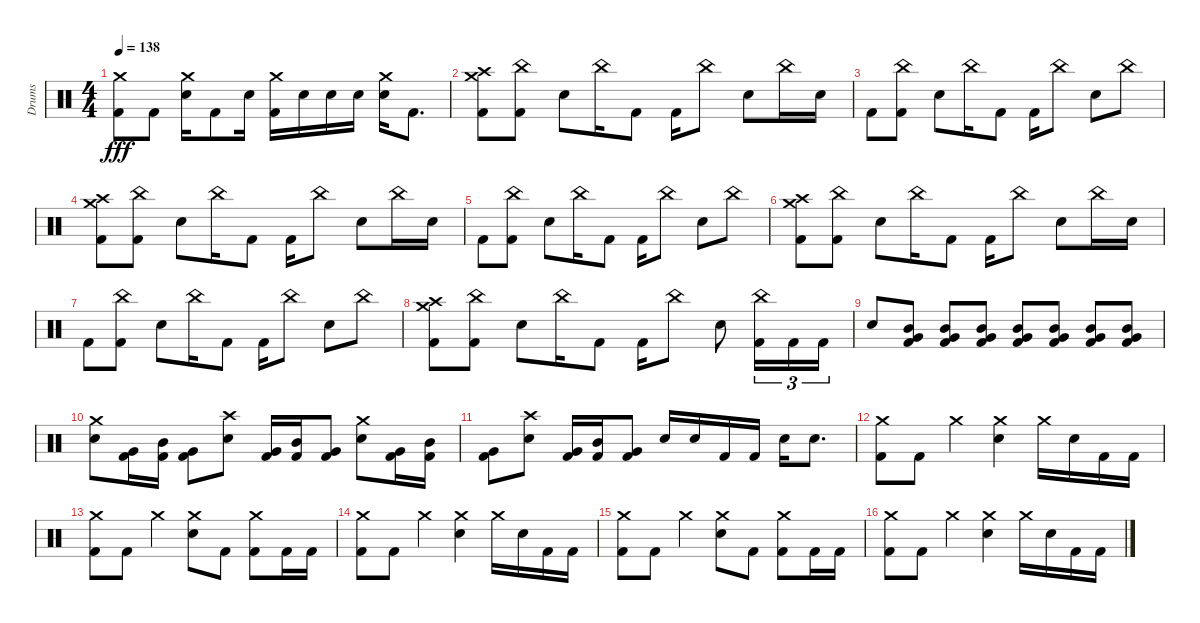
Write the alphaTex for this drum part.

\track ("Drums" "Drums") {instrument percussion}
\staff {score}
\articulation defaults
\ts (4 4)
\tempo 138
\clef neutral
\ks c
("Crash medium (hit)" "Kick (hit) 2").8{dy fff} "Kick (hit) 2".8 ("Crash medium (hit)" "Electric Snare (hit)").16 "Kick (hit) 2".8 "Electric Snare (hit)".16 ("Crash medium (hit)" "Kick (hit) 2").16 "Electric Snare (hit)".16 "Electric Snare (hit)".16 "Electric Snare (hit)".16 ("Crash medium (hit)" "Electric Snare (hit)").16 "Kick (hit) 2".8{d} |
("Crash medium (hit)" "Crash high (hit)" "Kick (hit) 2").8 ("China (hit)" "Kick (hit) 2").8 "Electric Snare (hit)".8 "China (hit)".16 "Kick (hit) 2".8 "Kick (hit) 2".16 "China (hit)".8 "Electric Snare (hit)".8 "China (hit)".16 "Electric Snare (hit)".16 |
"Kick (hit) 2".8 ("China (hit)" "Kick (hit) 2").8 "Electric Snare (hit)".8 "China (hit)".16 "Kick (hit) 2".8 "Kick (hit) 2".16 "China (hit)".8 "Electric Snare (hit)".8 "China (hit)".8 |
("Crash medium (hit)" "Crash high (hit)" "Kick (hit) 2").8 ("China (hit)" "Kick (hit) 2").8 "Electric Snare (hit)".8 "China (hit)".16 "Kick (hit) 2".8 "Kick (hit) 2".16 "China (hit)".8 "Electric Snare (hit)".8 "China (hit)".16 "Electric Snare (hit)".16 |
"Kick (hit) 2".8 ("China (hit)" "Kick (hit) 2").8 "Electric Snare (hit)".8 "China (hit)".16 "Kick (hit) 2".8 "Kick (hit) 2".16 "China (hit)".8 "Electric Snare (hit)".8 "China (hit)".8 |
("Crash medium (hit)" "Crash high (hit)" "Kick (hit) 2").8 ("China (hit)" "Kick (hit) 2").8 "Electric Snare (hit)".8 "China (hit)".16 "Kick (hit) 2".8 "Kick (hit) 2".16 "China (hit)".8 "Electric Snare (hit)".8 "China (hit)".16 "Electric Snare (hit)".16 |
"Kick (hit) 2".8 ("China (hit)" "Kick (hit) 2").8 "Electric Snare (hit)".8 "China (hit)".16 "Kick (hit) 2".8 "Kick (hit) 2".16 "China (hit)".8 "Electric Snare (hit)".8 "China (hit)".8 |
("Crash medium (hit)" "Crash high (hit)" "Kick (hit) 2").8 ("China (hit)" "Kick (hit) 2").8 "Electric Snare (hit)".8 "China (hit)".16 "Kick (hit) 2".8 "Kick (hit) 2".16 "China (hit)".8 "Electric Snare (hit)".8 ("China (hit)" "Kick (hit) 2").16{tu (3 2)} "Kick (hit) 2".16{tu (3 2)} "Kick (hit) 2".16{tu (3 2)} |
"Electric Snare (hit)".8 ("Very Low Tom (hit)" "Mid Tom (hit)" "Kick (hit) 2").8 ("Very Low Tom (hit)" "Mid Tom (hit)" "Kick (hit) 2").8 ("Very Low Tom (hit)" "Mid Tom (hit)" "Kick (hit) 2").8 ("Very Low Tom (hit)" "Mid Tom (hit)" "Kick (hit) 2").8 ("Very Low Tom (hit)" "Mid Tom (hit)" "Kick (hit) 2").8 ("Very Low Tom (hit)" "Mid Tom (hit)" "Kick (hit) 2").8 ("Very Low Tom (hit)" "Mid Tom (hit)" "Kick (hit) 2").8 |
("Crash medium (hit)" "Electric Snare (hit)").8 ("Very Low Tom (hit)" "Kick (hit) 2").16 ("Mid Tom (hit)" "Kick (hit) 2").16 ("Very Low Tom (hit)" "Kick (hit) 2").8 ("Crash high (hit)" "Electric Snare (hit)").8 ("Very Low Tom (hit)" "Kick (hit) 2").16 ("Mid Tom (hit)" "Kick (hit) 2").16 ("Very Low Tom (hit)" "Kick (hit) 2").8 ("Crash medium (hit)" "Electric Snare (hit)").8 ("Very Low Tom (hit)" "Kick (hit) 2").16 ("Mid Tom (hit)" "Kick (hit) 2").16 |
("Very Low Tom (hit)" "Kick (hit) 2").8 ("Crash high (hit)" "Electric Snare (hit)").8 ("Very Low Tom (hit)" "Kick (hit) 2").16 ("Mid Tom (hit)" "Kick (hit) 2").16 ("Very Low Tom (hit)" "Kick (hit) 2").8 "Electric Snare (hit)".16 "Electric Snare (hit)".16 "Kick (hit) 2".16 "Kick (hit) 2".16 "Electric Snare (hit)".16 "Electric Snare (hit)".8{d} |
("Crash medium (hit)" "Kick (hit) 2").8 "Kick (hit) 2".8 "Crash medium (hit)".4 ("Crash medium (hit)" "Electric Snare (hit)").4 "Crash medium (hit)".16 "Electric Snare (hit)".16 "Kick (hit) 2".16 "Kick (hit) 2".16 |
("Crash medium (hit)" "Kick (hit) 2").8 "Kick (hit) 2".8 "Crash medium (hit)".4 ("Crash medium (hit)" "Electric Snare (hit)").8 "Kick (hit) 2".8 ("Crash medium (hit)" "Kick (hit) 2").8 "Kick (hit) 2".16 "Kick (hit) 2".16 |
("Crash medium (hit)" "Kick (hit) 2").8 "Kick (hit) 2".8 "Crash medium (hit)".4 ("Crash medium (hit)" "Electric Snare (hit)").4 "Crash medium (hit)".16 "Electric Snare (hit)".16 "Kick (hit) 2".16 "Kick (hit) 2".16 |
("Crash medium (hit)" "Kick (hit) 2").8 "Kick (hit) 2".8 "Crash medium (hit)".4 ("Crash medium (hit)" "Electric Snare (hit)").8 "Kick (hit) 2".8 ("Crash medium (hit)" "Kick (hit) 2").8 "Kick (hit) 2".16 "Kick (hit) 2".16 |
("Crash medium (hit)" "Kick (hit) 2").8 "Kick (hit) 2".8 "Crash medium (hit)".4 ("Crash medium (hit)" "Electric Snare (hit)").4 "Crash medium (hit)".16 "Electric Snare (hit)".16 "Kick (hit) 2".16 "Kick (hit) 2".16
